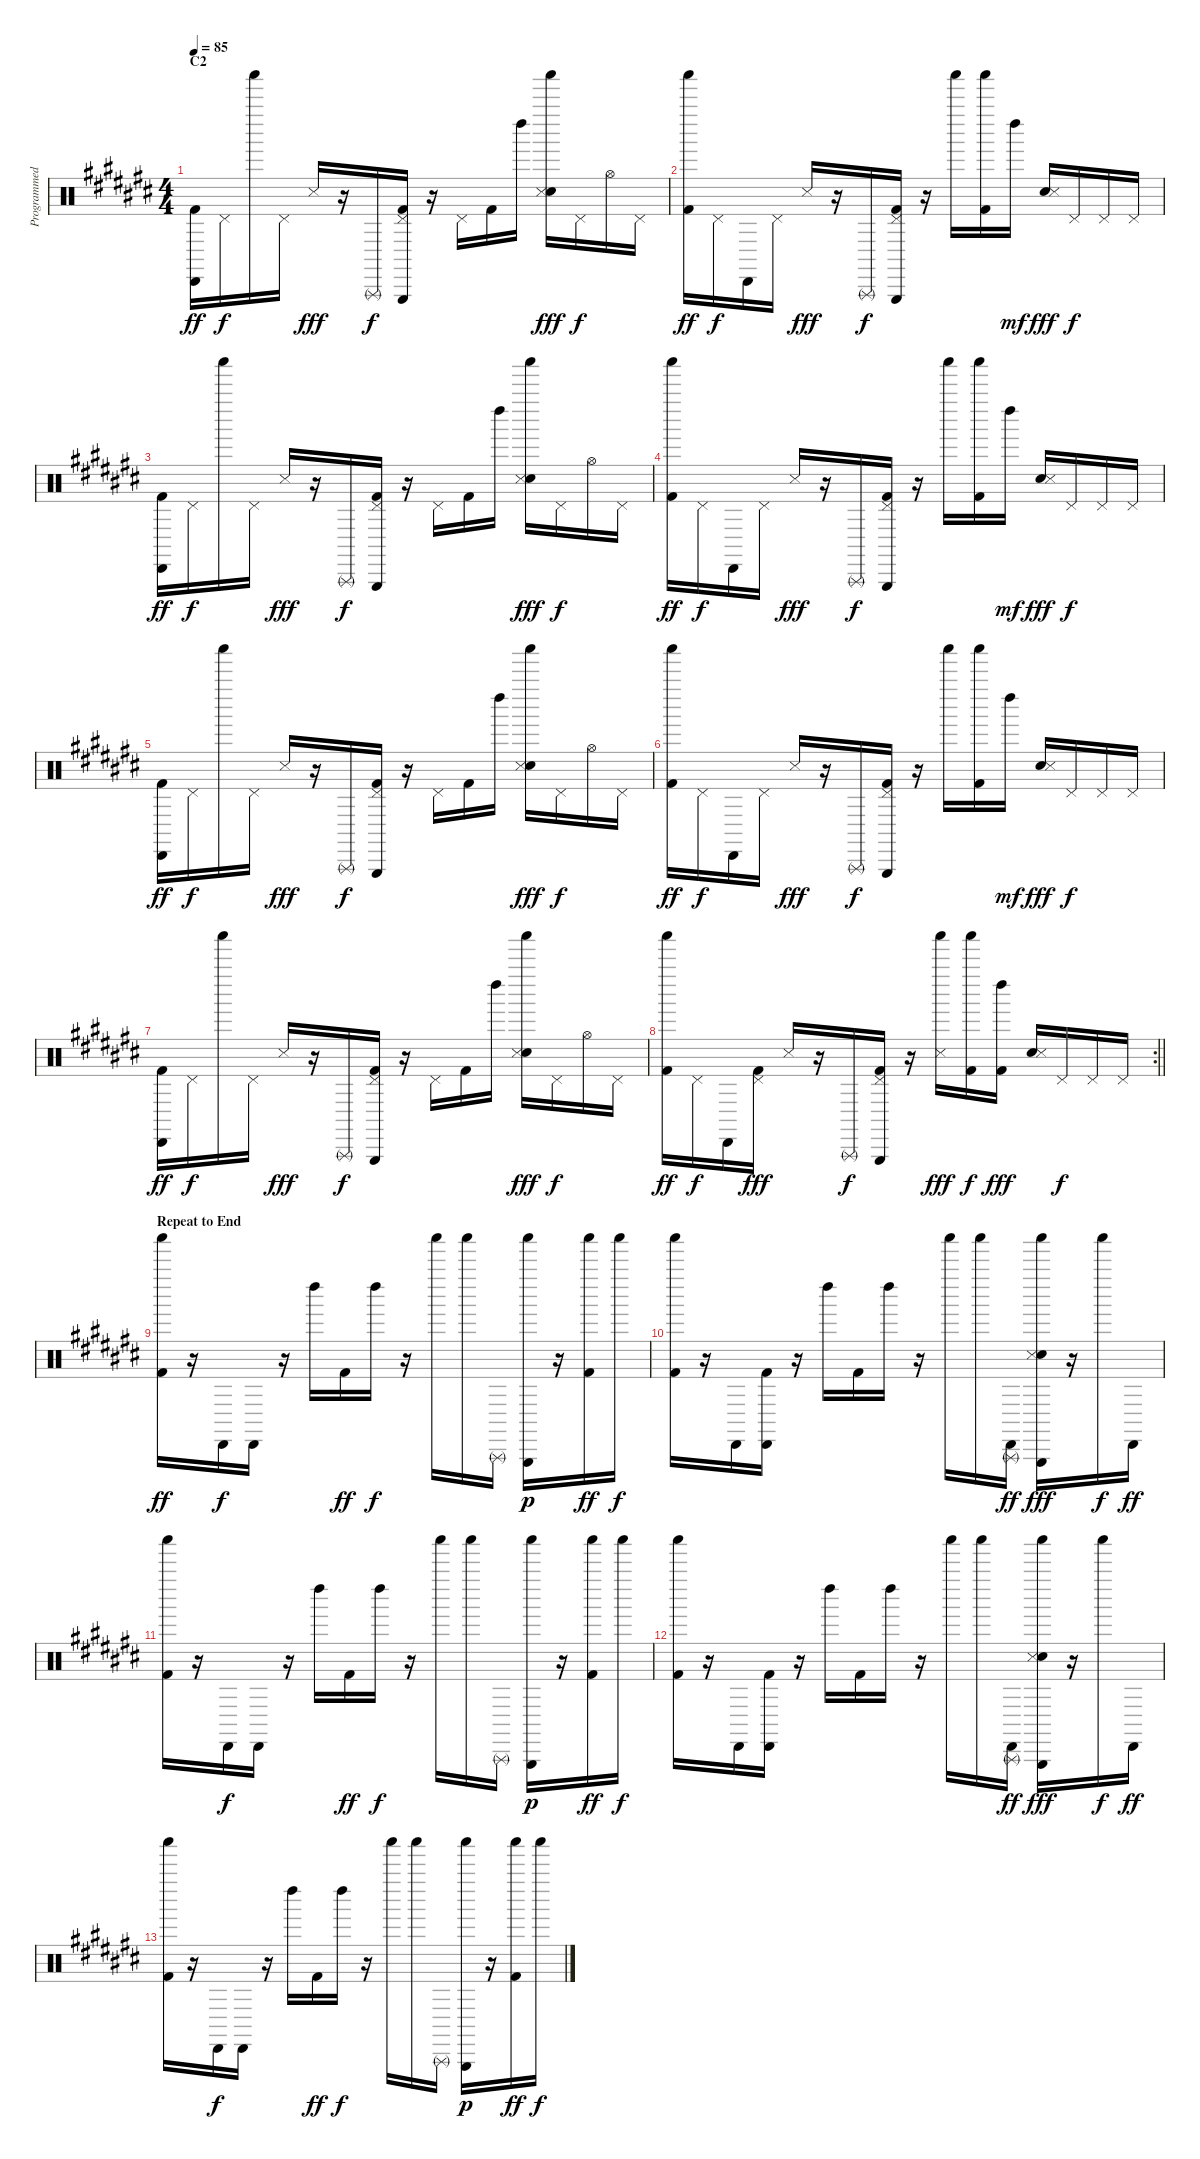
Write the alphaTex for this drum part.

\track ("Programmed Drum" "Programmed") {instrument percussion}
\staff {score}
\articulation defaults
\ts (4 4)
\section ("" "C2")
\tempo 85
\clef neutral
\ks c#
("Cabasa (hit)" "Kick (hit) 2").16{dy ff} "Pedal Hi-Hat (hit)".16{dy f} "Shaker (hit)".16 "Pedal Hi-Hat (hit)".16 "Snare (side stick) 3".16{dy fff} r.16 "Triangle (rnute)".16{dy f} ("Triangle (hit)" "Pedal Hi-Hat (hit)" "Kick (hit) 2").16 r.16 "Pedal Hi-Hat (hit)".16 "Kick (hit) 2".16 "Left Maraca (hit)".16 ("Shaker (hit)" "Hand Clap (hit)" "Snare (side stick) 3").16{dy fff} "Pedal Hi-Hat (hit)".16{dy f} "Hi-Hat (open)".16 "Pedal Hi-Hat (hit)".16 |
("Shaker (hit)" "Kick (hit) 2").16{dy ff} "Pedal Hi-Hat (hit)".16{dy f} "Cabasa (hit)".16 "Pedal Hi-Hat (hit)".16 "Snare (side stick) 3".16{dy fff} r.16 "Triangle (rnute)".16{dy f} ("Triangle (hit)" "Pedal Hi-Hat (hit)" "Kick (hit) 2").16 r.16 "Shaker (hit)".16 ("Shaker (hit)" "Kick (hit) 2").16 "Left Maraca (hit)".16{dy mf} ("Hand Clap (hit)" "Snare (side stick) 3").16{dy fff} "Pedal Hi-Hat (hit)".16{dy f} "Pedal Hi-Hat (hit)".16 "Pedal Hi-Hat (hit)".16 |
("Cabasa (hit)" "Kick (hit) 2").16{dy ff} "Pedal Hi-Hat (hit)".16{dy f} "Shaker (hit)".16 "Pedal Hi-Hat (hit)".16 "Snare (side stick) 3".16{dy fff} r.16 "Triangle (rnute)".16{dy f} ("Triangle (hit)" "Pedal Hi-Hat (hit)" "Kick (hit) 2").16 r.16 "Pedal Hi-Hat (hit)".16 "Kick (hit) 2".16 "Left Maraca (hit)".16 ("Shaker (hit)" "Hand Clap (hit)" "Snare (side stick) 3").16{dy fff} "Pedal Hi-Hat (hit)".16{dy f} "Hi-Hat (open)".16 "Pedal Hi-Hat (hit)".16 |
("Shaker (hit)" "Kick (hit) 2").16{dy ff} "Pedal Hi-Hat (hit)".16{dy f} "Cabasa (hit)".16 "Pedal Hi-Hat (hit)".16 "Snare (side stick) 3".16{dy fff} r.16 "Triangle (rnute)".16{dy f} ("Triangle (hit)" "Pedal Hi-Hat (hit)" "Kick (hit) 2").16 r.16 "Shaker (hit)".16 ("Shaker (hit)" "Kick (hit) 2").16 "Left Maraca (hit)".16{dy mf} ("Hand Clap (hit)" "Snare (side stick) 3").16{dy fff} "Pedal Hi-Hat (hit)".16{dy f} "Pedal Hi-Hat (hit)".16 "Pedal Hi-Hat (hit)".16 |
("Cabasa (hit)" "Kick (hit) 2").16{dy ff} "Pedal Hi-Hat (hit)".16{dy f} "Shaker (hit)".16 "Pedal Hi-Hat (hit)".16 "Snare (side stick) 3".16{dy fff} r.16 "Triangle (rnute)".16{dy f} ("Triangle (hit)" "Pedal Hi-Hat (hit)" "Kick (hit) 2").16 r.16 "Pedal Hi-Hat (hit)".16 "Kick (hit) 2".16 "Left Maraca (hit)".16 ("Shaker (hit)" "Hand Clap (hit)" "Snare (side stick) 3").16{dy fff} "Pedal Hi-Hat (hit)".16{dy f} "Hi-Hat (open)".16 "Pedal Hi-Hat (hit)".16 |
("Shaker (hit)" "Kick (hit) 2").16{dy ff} "Pedal Hi-Hat (hit)".16{dy f} "Cabasa (hit)".16 "Pedal Hi-Hat (hit)".16 "Snare (side stick) 3".16{dy fff} r.16 "Triangle (rnute)".16{dy f} ("Triangle (hit)" "Pedal Hi-Hat (hit)" "Kick (hit) 2").16 r.16 "Shaker (hit)".16 ("Shaker (hit)" "Kick (hit) 2").16 "Left Maraca (hit)".16{dy mf} ("Hand Clap (hit)" "Snare (side stick) 3").16{dy fff} "Pedal Hi-Hat (hit)".16{dy f} "Pedal Hi-Hat (hit)".16 "Pedal Hi-Hat (hit)".16 |
("Cabasa (hit)" "Kick (hit) 2").16{dy ff} "Pedal Hi-Hat (hit)".16{dy f} "Shaker (hit)".16 "Pedal Hi-Hat (hit)".16 "Snare (side stick) 3".16{dy fff} r.16 "Triangle (rnute)".16{dy f} ("Triangle (hit)" "Pedal Hi-Hat (hit)" "Kick (hit) 2").16 r.16 "Pedal Hi-Hat (hit)".16 "Kick (hit) 2".16 "Left Maraca (hit)".16 ("Shaker (hit)" "Hand Clap (hit)" "Snare (side stick) 3").16{dy fff} "Pedal Hi-Hat (hit)".16{dy f} "Hi-Hat (open)".16 "Pedal Hi-Hat (hit)".16 |
\rc 2
\barLineRight lightlight
("Shaker (hit)" "Kick (hit) 2").16{dy ff} "Pedal Hi-Hat (hit)".16{dy f} "Cabasa (hit)".16 ("Pedal Hi-Hat (hit)" "Kick (hit) 2").16{dy fff} "Snare (side stick) 3".16 r.16 "Triangle (rnute)".16{dy f} ("Triangle (hit)" "Pedal Hi-Hat (hit)" "Kick (hit) 2").16 r.16 ("Shaker (hit)" "Snare (side stick) 3").16{dy fff} ("Shaker (hit)" "Kick (hit) 2").16{dy f} ("Left Maraca (hit)" "Kick (hit) 2").16{dy fff} ("Hand Clap (hit)" "Snare (side stick) 3").16 "Pedal Hi-Hat (hit)".16{dy f} "Pedal Hi-Hat (hit)".16 "Pedal Hi-Hat (hit)".16 |
\section ("" "Repeat to End")
("Shaker (hit)" "Kick (hit) 2").16{dy ff} r.16 "Cabasa (hit)".16{dy f} "Cabasa (hit)".16 r.16 "Left Maraca (hit)".16 "Kick (hit) 2".16{dy ff} "Left Maraca (hit)".16{dy f} r.16 "Shaker (hit)".16 "Shaker (hit)".16 "Triangle (rnute)".16 ("Shaker (hit)" "Triangle (hit)").16{dy p} r.16 ("Shaker (hit)" "Kick (hit) 2").16{dy ff} "Shaker (hit)".16{dy f} |
("Shaker (hit)" "Kick (hit) 2").16 r.16 "Cabasa (hit)".16 ("Kick (hit) 2" "Cabasa (hit)").16 r.16 "Left Maraca (hit)".16 "Kick (hit) 2".16 "Left Maraca (hit)".16 r.16 "Shaker (hit)".16 "Shaker (hit)".16 ("Cabasa (hit)" "Triangle (rnute)").16{dy ff} ("Hand Clap (hit)" "Shaker (hit)" "Triangle (hit)" "Snare (side stick) 3").16{dy fff} r.16 "Shaker (hit)".16{dy f} "Cabasa (hit)".16{dy ff} |
("Shaker (hit)" "Kick (hit) 2").16 r.16 "Cabasa (hit)".16{dy f} "Cabasa (hit)".16 r.16 "Left Maraca (hit)".16 "Kick (hit) 2".16{dy ff} "Left Maraca (hit)".16{dy f} r.16 "Shaker (hit)".16 "Shaker (hit)".16 "Triangle (rnute)".16 ("Shaker (hit)" "Triangle (hit)").16{dy p} r.16 ("Shaker (hit)" "Kick (hit) 2").16{dy ff} "Shaker (hit)".16{dy f} |
("Shaker (hit)" "Kick (hit) 2").16 r.16 "Cabasa (hit)".16 ("Kick (hit) 2" "Cabasa (hit)").16 r.16 "Left Maraca (hit)".16 "Kick (hit) 2".16 "Left Maraca (hit)".16 r.16 "Shaker (hit)".16 "Shaker (hit)".16 ("Cabasa (hit)" "Triangle (rnute)").16{dy ff} ("Hand Clap (hit)" "Shaker (hit)" "Triangle (hit)" "Snare (side stick) 3").16{dy fff} r.16 "Shaker (hit)".16{dy f} "Cabasa (hit)".16{dy ff} |
("Shaker (hit)" "Kick (hit) 2").16 r.16 "Cabasa (hit)".16{dy f} "Cabasa (hit)".16 r.16 "Left Maraca (hit)".16 "Kick (hit) 2".16{dy ff} "Left Maraca (hit)".16{dy f} r.16 "Shaker (hit)".16 "Shaker (hit)".16 "Triangle (rnute)".16 ("Shaker (hit)" "Triangle (hit)").16{dy p} r.16 ("Shaker (hit)" "Kick (hit) 2").16{dy ff} "Shaker (hit)".16{dy f}
